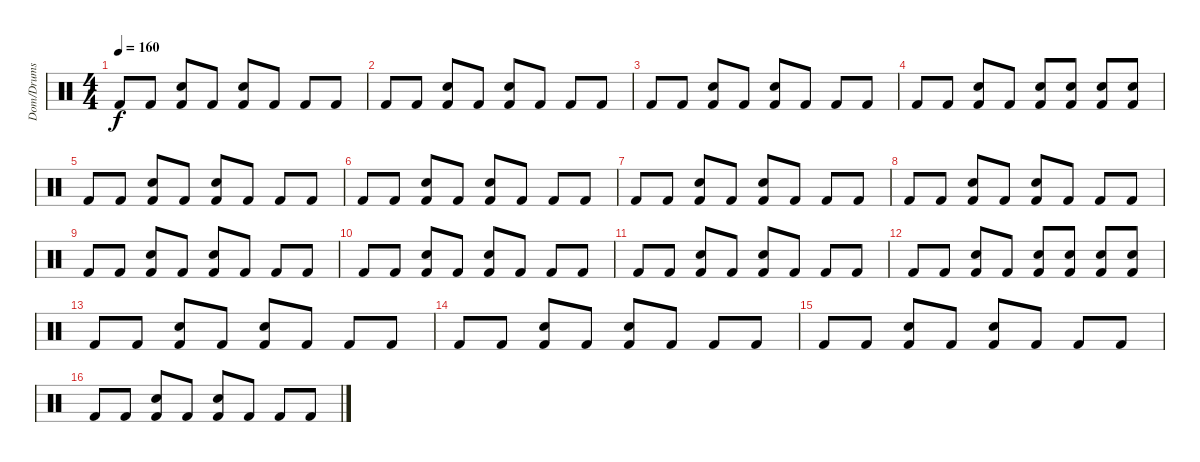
\track ("Dom/Drums" "Dom/Drums") {instrument percussion}
\staff {score}
\articulation defaults
\ts (4 4)
\tempo 160
\clef neutral
\ks c "Kick (hit) 2".8{dy f} "Kick (hit) 2".8
("Electric Snare (hit)" "Kick (hit) 2").8 "Kick (hit) 2".8 ("Electric Snare (hit)" "Kick (hit) 2").8 "Kick (hit) 2".8 "Kick (hit) 2".8 "Kick (hit) 2".8 |
"Kick (hit) 2".8 "Kick (hit) 2".8 ("Electric Snare (hit)" "Kick (hit) 2").8 "Kick (hit) 2".8 ("Electric Snare (hit)" "Kick (hit) 2").8 "Kick (hit) 2".8 "Kick (hit) 2".8 "Kick (hit) 2".8 |
"Kick (hit) 2".8 "Kick (hit) 2".8 ("Electric Snare (hit)" "Kick (hit) 2").8 "Kick (hit) 2".8 ("Electric Snare (hit)" "Kick (hit) 2").8 "Kick (hit) 2".8 "Kick (hit) 2".8 "Kick (hit) 2".8 |
"Kick (hit) 2".8 "Kick (hit) 2".8 ("Electric Snare (hit)" "Kick (hit) 2").8 "Kick (hit) 2".8 ("Electric Snare (hit)" "Kick (hit) 2").8 ("Electric Snare (hit)" "Kick (hit) 2").8 ("Electric Snare (hit)" "Kick (hit) 2").8 ("Electric Snare (hit)" "Kick (hit) 2").8 |
"Kick (hit) 2".8 "Kick (hit) 2".8 ("Electric Snare (hit)" "Kick (hit) 2").8 "Kick (hit) 2".8 ("Electric Snare (hit)" "Kick (hit) 2").8 "Kick (hit) 2".8 "Kick (hit) 2".8 "Kick (hit) 2".8 |
"Kick (hit) 2".8 "Kick (hit) 2".8 ("Electric Snare (hit)" "Kick (hit) 2").8 "Kick (hit) 2".8 ("Electric Snare (hit)" "Kick (hit) 2").8 "Kick (hit) 2".8 "Kick (hit) 2".8 "Kick (hit) 2".8 |
"Kick (hit) 2".8 "Kick (hit) 2".8 ("Electric Snare (hit)" "Kick (hit) 2").8 "Kick (hit) 2".8 ("Electric Snare (hit)" "Kick (hit) 2").8 "Kick (hit) 2".8 "Kick (hit) 2".8 "Kick (hit) 2".8 |
"Kick (hit) 2".8 "Kick (hit) 2".8 ("Electric Snare (hit)" "Kick (hit) 2").8 "Kick (hit) 2".8 ("Electric Snare (hit)" "Kick (hit) 2").8 "Kick (hit) 2".8 "Kick (hit) 2".8 "Kick (hit) 2".8 |
"Kick (hit) 2".8 "Kick (hit) 2".8 ("Electric Snare (hit)" "Kick (hit) 2").8 "Kick (hit) 2".8 ("Electric Snare (hit)" "Kick (hit) 2").8 "Kick (hit) 2".8 "Kick (hit) 2".8 "Kick (hit) 2".8 |
"Kick (hit) 2".8 "Kick (hit) 2".8 ("Electric Snare (hit)" "Kick (hit) 2").8 "Kick (hit) 2".8 ("Electric Snare (hit)" "Kick (hit) 2").8 "Kick (hit) 2".8 "Kick (hit) 2".8 "Kick (hit) 2".8 |
"Kick (hit) 2".8 "Kick (hit) 2".8 ("Electric Snare (hit)" "Kick (hit) 2").8 "Kick (hit) 2".8 ("Electric Snare (hit)" "Kick (hit) 2").8 "Kick (hit) 2".8 "Kick (hit) 2".8 "Kick (hit) 2".8 |
"Kick (hit) 2".8 "Kick (hit) 2".8 ("Electric Snare (hit)" "Kick (hit) 2").8 "Kick (hit) 2".8 ("Electric Snare (hit)" "Kick (hit) 2").8 ("Electric Snare (hit)" "Kick (hit) 2").8 ("Electric Snare (hit)" "Kick (hit) 2").8 ("Electric Snare (hit)" "Kick (hit) 2").8 |
"Kick (hit) 2".8 "Kick (hit) 2".8 ("Electric Snare (hit)" "Kick (hit) 2").8 "Kick (hit) 2".8 ("Electric Snare (hit)" "Kick (hit) 2").8 "Kick (hit) 2".8 "Kick (hit) 2".8 "Kick (hit) 2".8 |
"Kick (hit) 2".8 "Kick (hit) 2".8 ("Electric Snare (hit)" "Kick (hit) 2").8 "Kick (hit) 2".8 ("Electric Snare (hit)" "Kick (hit) 2").8 "Kick (hit) 2".8 "Kick (hit) 2".8 "Kick (hit) 2".8 |
"Kick (hit) 2".8 "Kick (hit) 2".8 ("Electric Snare (hit)" "Kick (hit) 2").8 "Kick (hit) 2".8 ("Electric Snare (hit)" "Kick (hit) 2").8 "Kick (hit) 2".8 "Kick (hit) 2".8 "Kick (hit) 2".8 |
"Kick (hit) 2".8 "Kick (hit) 2".8 ("Electric Snare (hit)" "Kick (hit) 2").8 "Kick (hit) 2".8 ("Electric Snare (hit)" "Kick (hit) 2").8 "Kick (hit) 2".8 "Kick (hit) 2".8 "Kick (hit) 2".8
